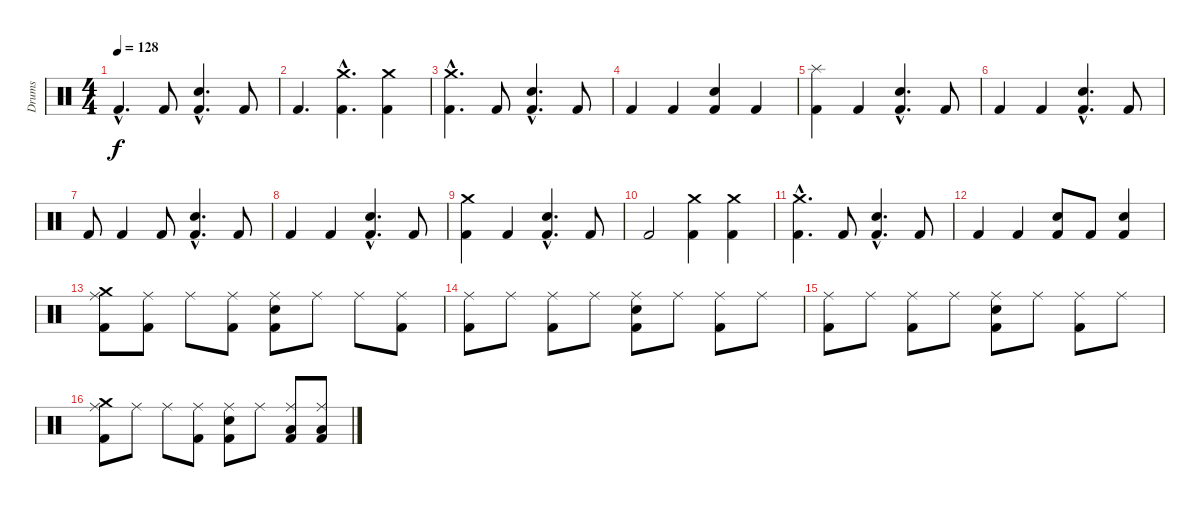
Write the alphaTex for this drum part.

\track ("Drums" "Drums") {instrument percussion}
\staff {score}
\articulation defaults
\ts (4 4)
\tempo 128
\clef neutral
\ks c "Kick (hit) 2"{hac}.4{d dy f} "Kick (hit) 2".8
("Snare (hit) 2"{hac} "Kick (hit) 2"{hac}).4{d} "Kick (hit) 2".8 |
"Kick (hit) 2".4{d} ("Crash medium (hit)"{hac} "Kick (hit) 2"{hac}).4{d} ("Crash medium (hit)" "Kick (hit) 2").4 |
("Crash medium (hit)"{hac} "Kick (hit) 2"{hac}).4{d} "Kick (hit) 2".8 ("Snare (hit) 2"{hac} "Kick (hit) 2"{hac}).4{d} "Kick (hit) 2".8 |
"Kick (hit) 2".4 "Kick (hit) 2".4 ("Snare (hit) 2" "Kick (hit) 2").4 "Kick (hit) 2".4 |
("Splash (hit)" "Kick (hit) 2").4 "Kick (hit) 2".4 ("Snare (hit) 2"{hac} "Kick (hit) 2"{hac}).4{d} "Kick (hit) 2".8 |
"Kick (hit) 2".4 "Kick (hit) 2".4 ("Snare (hit) 2"{hac} "Kick (hit) 2"{hac}).4{d} "Kick (hit) 2".8 |
"Kick (hit) 2".8 "Kick (hit) 2".4 "Kick (hit) 2".8 ("Snare (hit) 2"{hac} "Kick (hit) 2"{hac}).4{d} "Kick (hit) 2".8 |
"Kick (hit) 2".4 "Kick (hit) 2".4 ("Snare (hit) 2"{hac} "Kick (hit) 2"{hac}).4{d} "Kick (hit) 2".8 |
("Crash medium (hit)" "Kick (hit) 2").4 "Kick (hit) 2".4 ("Snare (hit) 2"{hac} "Kick (hit) 2"{hac}).4{d} "Kick (hit) 2".8 |
"Kick (hit) 2".2 ("Crash medium (hit)" "Kick (hit) 2").4 ("Crash medium (hit)" "Kick (hit) 2").4 |
("Crash medium (hit)"{hac} "Kick (hit) 2"{hac}).4{d} "Kick (hit) 2".8 ("Snare (hit) 2"{hac} "Kick (hit) 2"{hac}).4{d} "Kick (hit) 2".8 |
"Kick (hit) 2".4 "Kick (hit) 2".4 ("Snare (hit) 2" "Kick (hit) 2").8 "Kick (hit) 2".8 ("Snare (hit) 2" "Kick (hit) 2").4 |
("Ride (middle)" "Crash medium (hit)" "Kick (hit) 2").8 ("Ride (middle)" "Kick (hit) 2").8 "Ride (middle)".8 ("Ride (middle)" "Kick (hit) 2").8 ("Ride (middle)" "Snare (hit) 2" "Kick (hit) 2").8 "Ride (middle)".8 "Ride (middle)".8 ("Ride (middle)" "Kick (hit) 2").8 |
("Ride (middle)" "Kick (hit) 2").8 "Ride (middle)".8 ("Ride (middle)" "Kick (hit) 2").8 "Ride (middle)".8 ("Ride (middle)" "Snare (hit) 2" "Kick (hit) 2").8 "Ride (middle)".8 ("Ride (middle)" "Kick (hit) 2").8 "Ride (middle)".8 |
("Ride (middle)" "Kick (hit) 2").8 "Ride (middle)".8 ("Ride (middle)" "Kick (hit) 2").8 "Ride (middle)".8 ("Ride (middle)" "Snare (hit) 2" "Kick (hit) 2").8 "Ride (middle)".8 ("Ride (middle)" "Kick (hit) 2").8 "Ride (middle)".8 |
("Ride (middle)" "Crash medium (hit)" "Kick (hit) 2").8 "Ride (middle)".8 "Ride (middle)".8 ("Ride (middle)" "Kick (hit) 2").8 ("Ride (middle)" "Snare (hit) 2" "Kick (hit) 2").8 "Ride (middle)".8 ("Ride (middle)" "Low Tom (hit)" "Kick (hit) 2").8 ("Ride (middle)" "Low Tom (hit)" "Kick (hit) 2").8
